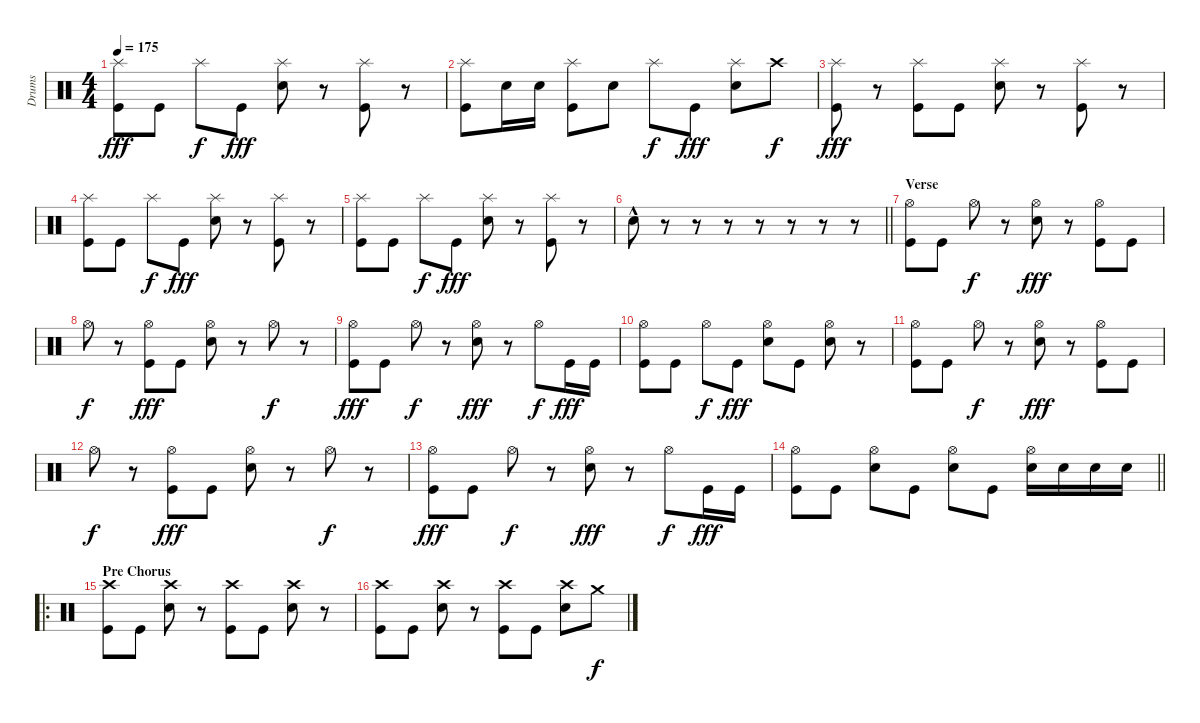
\track ("Drums" "Drums") {instrument percussion}
\staff {score}
\articulation defaults
\ts (4 4)
\tempo 175
\clef neutral
\ks c
("Splash (hit)" "Kick (hit)").8{dy fff} "Kick (hit)".8 "Splash (hit)".8{dy f} "Kick (hit)".8{dy fff} ("Splash (hit)" "Electric Snare (hit)").8 r.8 ("Splash (hit)" "Kick (hit)").8 r.8 |
("Splash (hit)" "Kick (hit)").8 "Electric Snare (hit)".16 "Electric Snare (hit)".16 ("Splash (hit)" "Kick (hit)").8 "Electric Snare (hit)".8 "Splash (hit)".8{dy f} "Kick (hit)".8{dy fff} ("Splash (hit)" "Electric Snare (hit)").8 "Crash high (hit)".8{dy f} |
("Splash (hit)" "Kick (hit)").8{dy fff} r.8 ("Splash (hit)" "Kick (hit)").8 "Kick (hit)".8 ("Splash (hit)" "Electric Snare (hit)").8 r.8 ("Splash (hit)" "Kick (hit)").8 r.8 |
("Splash (hit)" "Kick (hit)").8 "Kick (hit)".8 "Splash (hit)".8{dy f} "Kick (hit)".8{dy fff} ("Splash (hit)" "Electric Snare (hit)").8 r.8 ("Splash (hit)" "Kick (hit)").8 r.8 |
("Splash (hit)" "Kick (hit)").8 "Kick (hit)".8 "Splash (hit)".8{dy f} "Kick (hit)".8{dy fff} ("Splash (hit)" "Electric Snare (hit)").8 r.8 ("Splash (hit)" "Kick (hit)").8 r.8 |
\barLineRight lightlight "Electric Snare (hit)"{hac}.8
r.8 r.8 r.8 r.8 r.8 r.8 r.8 |
\section ("" "Verse")
("Hi-Hat (open)" "Kick (hit)").8 "Kick (hit)".8 "Hi-Hat (open)".8{dy f} r.8 ("Hi-Hat (open)" "Electric Snare (hit)").8{dy fff} r.8 ("Hi-Hat (open)" "Kick (hit)").8 "Kick (hit)".8 |
"Hi-Hat (open)".8{dy f} r.8 ("Hi-Hat (open)" "Kick (hit)").8{dy fff} "Kick (hit)".8 ("Hi-Hat (open)" "Electric Snare (hit)").8 r.8 "Hi-Hat (open)".8{dy f} r.8 |
("Hi-Hat (open)" "Kick (hit)").8{dy fff} "Kick (hit)".8 "Hi-Hat (open)".8{dy f} r.8 ("Hi-Hat (open)" "Electric Snare (hit)").8{dy fff} r.8 "Hi-Hat (open)".8{dy f} "Kick (hit)".16{dy fff} "Kick (hit)".16 |
("Hi-Hat (open)" "Kick (hit)").8 "Kick (hit)".8 "Hi-Hat (open)".8{dy f} "Kick (hit)".8{dy fff} ("Hi-Hat (open)" "Electric Snare (hit)").8 "Kick (hit)".8 ("Hi-Hat (open)" "Electric Snare (hit)").8 r.8 |
("Hi-Hat (open)" "Kick (hit)").8 "Kick (hit)".8 "Hi-Hat (open)".8{dy f} r.8 ("Hi-Hat (open)" "Electric Snare (hit)").8{dy fff} r.8 ("Hi-Hat (open)" "Kick (hit)").8 "Kick (hit)".8 |
"Hi-Hat (open)".8{dy f} r.8 ("Hi-Hat (open)" "Kick (hit)").8{dy fff} "Kick (hit)".8 ("Hi-Hat (open)" "Electric Snare (hit)").8 r.8 "Hi-Hat (open)".8{dy f} r.8 |
("Hi-Hat (open)" "Kick (hit)").8{dy fff} "Kick (hit)".8 "Hi-Hat (open)".8{dy f} r.8 ("Hi-Hat (open)" "Electric Snare (hit)").8{dy fff} r.8 "Hi-Hat (open)".8{dy f} "Kick (hit)".16{dy fff} "Kick (hit)".16 |
\barLineRight lightlight
("Hi-Hat (open)" "Kick (hit)").8 "Kick (hit)".8 ("Hi-Hat (open)" "Electric Snare (hit)").8 "Kick (hit)".8 ("Hi-Hat (open)" "Electric Snare (hit)").8 "Kick (hit)".8 ("Hi-Hat (open)" "Electric Snare (hit)").16 "Electric Snare (hit)".16 "Electric Snare (hit)".16 "Electric Snare (hit)".16 |
\ro
\section ("" "Pre Chorus")
("Crash high (hit)" "Kick (hit)").8 "Kick (hit)".8 ("Crash high (hit)" "Electric Snare (hit)").8 r.8 ("Crash high (hit)" "Kick (hit)").8 "Kick (hit)".8 ("Crash high (hit)" "Electric Snare (hit)").8 r.8 |
("Crash high (hit)" "Kick (hit)").8 "Kick (hit)".8 ("Crash high (hit)" "Electric Snare (hit)").8 r.8 ("Crash high (hit)" "Kick (hit)").8 "Kick (hit)".8 ("Crash high (hit)" "Electric Snare (hit)").8 "Crash medium (hit)".8{dy f}
